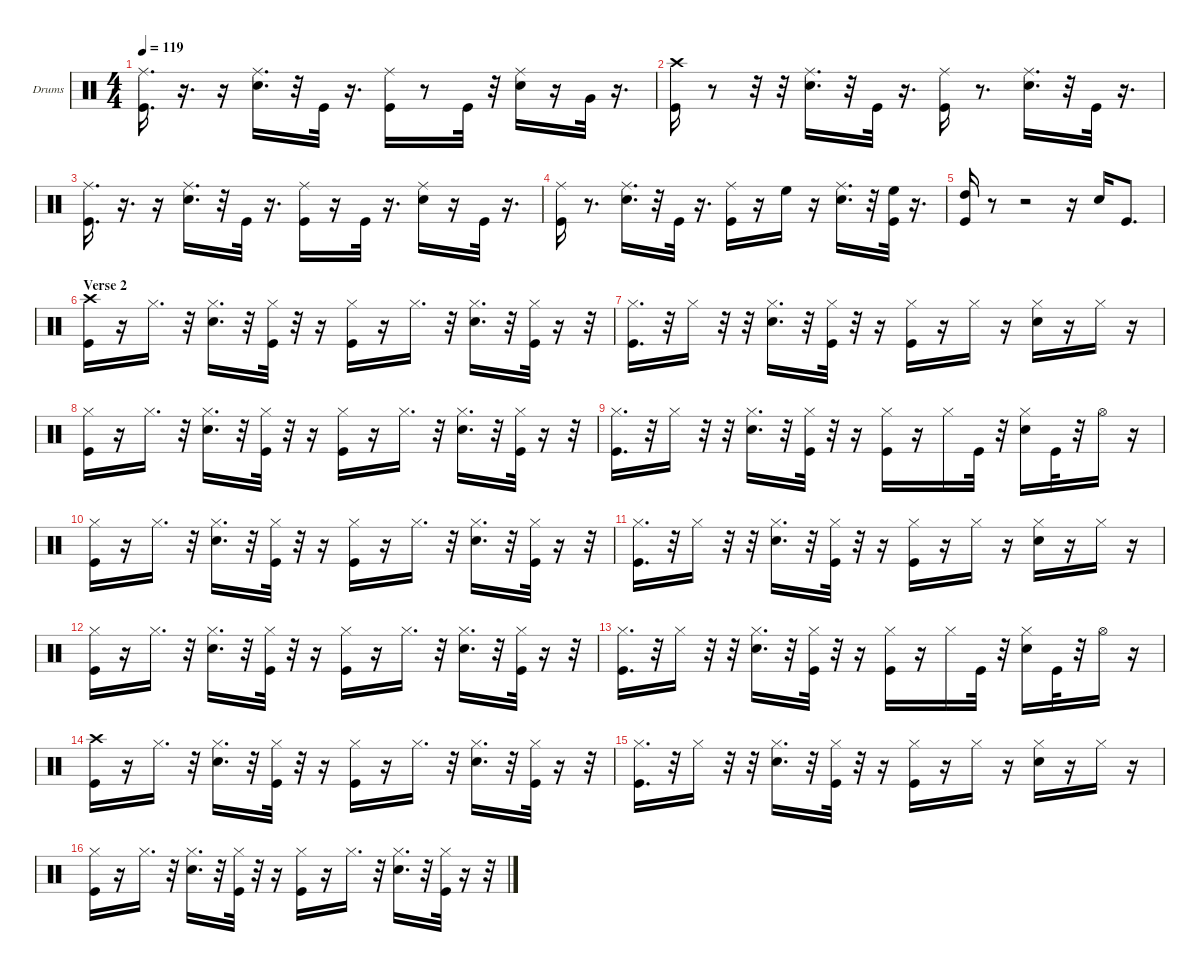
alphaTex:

\hideDynamics
\bracketExtendMode groupsimilarinstruments
\firstSystemTrackNameOrientation horizontal
\otherSystemsTrackNameOrientation horizontal
\track ("Drums" "Drums") {instrument percussion}
\staff {score}
\articulation defaults
\ts (4 4)
\tempo 119
\clef neutral
\ks c
("Ride (middle)" "Kick (hit)").16{d dy mf} r.16{d} r.16 ("Ride (middle)" "Snare (hit) 2").16{d} r.32 "Kick (hit)".32 r.16{d} ("Ride (middle)" "Kick (hit)").16 r.8 "Kick (hit)".32 r.32 ("Ride (middle)" "Snare (hit) 2").16 r.16 "Very Low Tom (hit)".32 r.16{d} |
("Kick (hit)" "Crash high (hit)").16 r.8 r.32 r.32 ("Ride (middle)" "Snare (hit) 2").16{d} r.32 "Kick (hit)".32 r.16{d} ("Kick (hit)" "Ride (middle)").16 r.8{d} ("Snare (hit) 2" "Ride (middle)").16{d} r.32 "Kick (hit)".32 r.16{d} |
("Ride (middle)" "Kick (hit)").16{d} r.16{d} r.16 ("Ride (middle)" "Snare (hit) 2").16{d} r.32 "Kick (hit)".32 r.16{d} ("Ride (middle)" "Kick (hit)").16 r.16 "Kick (hit)".32 r.16{d} ("Ride (middle)" "Snare (hit) 2").16 r.16 "Kick (hit)".32 r.16{d} |
("Kick (hit)" "Ride (middle)").16 r.8{d} ("Ride (middle)" "Snare (hit) 2").16{d} r.32 "Kick (hit)".32 r.16{d} ("Kick (hit)" "Ride (middle)").16 r.16 "High Floor Tom (hit)".16 r.16 ("Snare (hit) 2" "Ride (middle)").16{d} r.32 ("Kick (hit)" "High Floor Tom (hit)").32 r.16{d} |
("Kick (hit)" "High Tom (hit)").16 r.8 r.2 r.16 "Snare (hit) 2".16 "Kick (hit)".8{d} |
\section ("" "Verse 2")
("Kick (hit)" "Crash high (hit)").16 r.16 "Hi-Hat (closed)".16{d} r.32 ("Snare (hit) 2" "Hi-Hat (closed)").16{d} r.32 ("Kick (hit)" "Hi-Hat (closed)").32 r.32 r.16 ("Kick (hit)" "Hi-Hat (closed)").16 r.16 "Hi-Hat (closed)".16{d} r.32 ("Snare (hit) 2" "Hi-Hat (closed)").16{d} r.32 ("Kick (hit)" "Hi-Hat (closed)").32 r.16 r.32 |
("Kick (hit)" "Hi-Hat (closed)").16{d} r.32 "Hi-Hat (closed)".16 r.32 r.32 ("Snare (hit) 2" "Hi-Hat (closed)").16{d} r.32 ("Kick (hit)" "Hi-Hat (closed)").32 r.32 r.16 ("Kick (hit)" "Hi-Hat (closed)").16 r.16 "Hi-Hat (closed)".16 r.16 ("Snare (hit) 2" "Hi-Hat (closed)").16 r.16 "Hi-Hat (closed)".16 r.16 |
("Kick (hit)" "Hi-Hat (closed)").16 r.16 "Hi-Hat (closed)".16{d} r.32 ("Snare (hit) 2" "Hi-Hat (closed)").16{d} r.32 ("Kick (hit)" "Hi-Hat (closed)").32 r.32 r.16 ("Kick (hit)" "Hi-Hat (closed)").16 r.16 "Hi-Hat (closed)".16{d} r.32 ("Snare (hit) 2" "Hi-Hat (closed)").16{d} r.32 ("Kick (hit)" "Hi-Hat (closed)").32 r.16 r.32 |
("Kick (hit)" "Hi-Hat (closed)").16{d} r.32 "Hi-Hat (closed)".16 r.32 r.32 ("Snare (hit) 2" "Hi-Hat (closed)").16{d} r.32 ("Kick (hit)" "Hi-Hat (closed)").32 r.32 r.16 ("Kick (hit)" "Hi-Hat (closed)").16 r.16 "Hi-Hat (closed)".16 "Kick (hit)".32 r.32 ("Snare (hit) 2" "Hi-Hat (closed)").16 "Kick (hit)".32 r.32 "Hi-Hat (open)".16 r.16 |
("Kick (hit)" "Hi-Hat (closed)").16 r.16 "Hi-Hat (closed)".16{d} r.32 ("Snare (hit) 2" "Hi-Hat (closed)").16{d} r.32 ("Kick (hit)" "Hi-Hat (closed)").32 r.32 r.16 ("Kick (hit)" "Hi-Hat (closed)").16 r.16 "Hi-Hat (closed)".16{d} r.32 ("Snare (hit) 2" "Hi-Hat (closed)").16{d} r.32 ("Kick (hit)" "Hi-Hat (closed)").32 r.16 r.32 |
("Kick (hit)" "Hi-Hat (closed)").16{d} r.32 "Hi-Hat (closed)".16 r.32 r.32 ("Snare (hit) 2" "Hi-Hat (closed)").16{d} r.32 ("Kick (hit)" "Hi-Hat (closed)").32 r.32 r.16 ("Kick (hit)" "Hi-Hat (closed)").16 r.16 "Hi-Hat (closed)".16 r.16 ("Snare (hit) 2" "Hi-Hat (closed)").16 r.16 "Hi-Hat (closed)".16 r.16 |
("Kick (hit)" "Hi-Hat (closed)").16 r.16 "Hi-Hat (closed)".16{d} r.32 ("Snare (hit) 2" "Hi-Hat (closed)").16{d} r.32 ("Kick (hit)" "Hi-Hat (closed)").32 r.32 r.16 ("Kick (hit)" "Hi-Hat (closed)").16 r.16 "Hi-Hat (closed)".16{d} r.32 ("Snare (hit) 2" "Hi-Hat (closed)").16{d} r.32 ("Kick (hit)" "Hi-Hat (closed)").32 r.16 r.32 |
("Kick (hit)" "Hi-Hat (closed)").16{d} r.32 "Hi-Hat (closed)".16 r.32 r.32 ("Snare (hit) 2" "Hi-Hat (closed)").16{d} r.32 ("Kick (hit)" "Hi-Hat (closed)").32 r.32 r.16 ("Kick (hit)" "Hi-Hat (closed)").16 r.16 "Hi-Hat (closed)".16 "Kick (hit)".32 r.32 ("Snare (hit) 2" "Hi-Hat (closed)").16 "Kick (hit)".32 r.32 "Hi-Hat (open)".16 r.16 |
("Kick (hit)" "Crash high (hit)").16 r.16 "Hi-Hat (closed)".16{d} r.32 ("Snare (hit) 2" "Hi-Hat (closed)").16{d} r.32 ("Kick (hit)" "Hi-Hat (closed)").32 r.32 r.16 ("Kick (hit)" "Hi-Hat (closed)").16 r.16 "Hi-Hat (closed)".16{d} r.32 ("Snare (hit) 2" "Hi-Hat (closed)").16{d} r.32 ("Kick (hit)" "Hi-Hat (closed)").32 r.16 r.32 |
("Kick (hit)" "Hi-Hat (closed)").16{d} r.32 "Hi-Hat (closed)".16 r.32 r.32 ("Snare (hit) 2" "Hi-Hat (closed)").16{d} r.32 ("Kick (hit)" "Hi-Hat (closed)").32 r.32 r.16 ("Kick (hit)" "Hi-Hat (closed)").16 r.16 "Hi-Hat (closed)".16 r.16 ("Snare (hit) 2" "Hi-Hat (closed)").16 r.16 "Hi-Hat (closed)".16 r.16 |
("Kick (hit)" "Hi-Hat (closed)").16 r.16 "Hi-Hat (closed)".16{d} r.32 ("Snare (hit) 2" "Hi-Hat (closed)").16{d} r.32 ("Kick (hit)" "Hi-Hat (closed)").32 r.32 r.16 ("Kick (hit)" "Hi-Hat (closed)").16 r.16 "Hi-Hat (closed)".16{d} r.32 ("Snare (hit) 2" "Hi-Hat (closed)").16{d} r.32 ("Kick (hit)" "Hi-Hat (closed)").32 r.16 r.32
